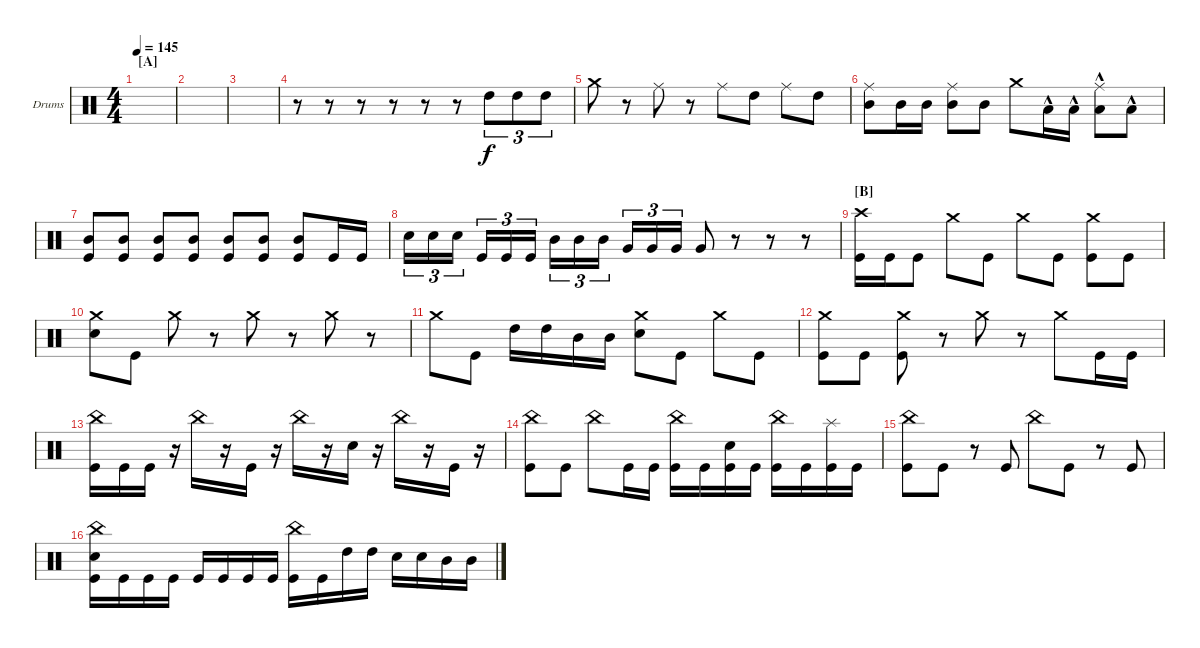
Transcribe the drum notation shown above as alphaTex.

\defaultSystemsLayout 4
\bracketExtendMode groupsimilarinstruments
\firstSystemTrackNameOrientation horizontal
\otherSystemsTrackNameOrientation horizontal
\track ("Drumkit" "Drums") {instrument percussion}
\staff {score}
\articulation defaults
\ts (4 4)
\section ("A" "")
\tempo 145
\clef neutral
\ks c
|
|
|
r.8 r.8 r.8 r.8 r.8 r.8 "High Tom (hit)".8{tu (3 2)} "High Tom (hit)".8{tu (3 2)} "High Tom (hit)".8{tu (3 2)} |
"Crash medium (hit)".8 r.8 "Ride (middle)".8 r.8 "Ride (middle)".8 "High Tom (hit)".8 "Ride (middle)".8 "High Tom (hit)".8 |
("Mid Tom (hit)" "Ride (middle)").8 "Mid Tom (hit)".16 "Mid Tom (hit)".16 ("Ride (middle)" "Mid Tom (hit)").8 "Mid Tom (hit)".8 "Crash medium (hit)".8 "Low Tom (hit)"{hac}.16 "Low Tom (hit)"{hac}.16 ("Low Tom (hit)"{hac} "Ride (middle)").8 "Low Tom (hit)"{hac}.8 |
("Kick (hit)" "Mid Tom (hit)").8 ("Kick (hit)" "Mid Tom (hit)").8 ("Kick (hit)" "Mid Tom (hit)").8 ("Kick (hit)" "Mid Tom (hit)").8 ("Kick (hit)" "Mid Tom (hit)").8 ("Kick (hit)" "Mid Tom (hit)").8 ("Kick (hit)" "Mid Tom (hit)").8 "Kick (hit)".16 "Kick (hit)".16 |
"Snare (hit) 2".16{tu (3 2)} "Snare (hit) 2".16{tu (3 2)} "Snare (hit) 2".16{tu (3 2)} "Kick (hit)".16{tu (3 2)} "Kick (hit)".16{tu (3 2)} "Kick (hit)".16{tu (3 2)} "Mid Tom (hit)".16{tu (3 2)} "Mid Tom (hit)".16{tu (3 2)} "Mid Tom (hit)".16{tu (3 2)} "Very Low Tom (hit)".16{tu (3 2)} "Very Low Tom (hit)".16{tu (3 2)} "Very Low Tom (hit)".16{tu (3 2)} "Very Low Tom (hit)".8 r.8 r.8 r.8 |
\section ("B" "")
("Kick (hit)" "Crash high (hit)").16 "Kick (hit)".16 "Kick (hit)".8 "Crash medium (hit)".8 "Kick (hit)".8 "Crash medium (hit)".8 "Kick (hit)".8 ("Kick (hit)" "Crash medium (hit)").8 "Kick (hit)".8 |
("Snare (hit) 2" "Crash medium (hit)").8 "Kick (hit)".8 "Crash medium (hit)".8 r.8 "Crash medium (hit)".8 r.8 "Crash medium (hit)".8 r.8 |
"Crash medium (hit)".8 "Kick (hit)".8 "High Tom (hit)".16 "High Tom (hit)".16 "Mid Tom (hit)".16 "Mid Tom (hit)".16 ("Snare (hit) 2" "Crash medium (hit)").8 "Kick (hit)".8 "Crash medium (hit)".8 "Kick (hit)".8 |
("Kick (hit)" "Crash medium (hit)").8 "Kick (hit)".8 ("Crash medium (hit)" "Kick (hit)").8 r.8 "Crash medium (hit)".8 r.8 "Crash medium (hit)".8 "Kick (hit)".16 "Kick (hit)".16 |
("Kick (hit)" "China (hit)").16 "Kick (hit)".16 "Kick (hit)".16 r.16 "China (hit)".16 r.16 "Kick (hit)".16 r.16 "China (hit)".16 r.16 "Snare (hit) 2".16 r.16 "China (hit)".16 r.16 "Kick (hit)".16 r.16 |
("China (hit)" "Kick (hit)").8 "Kick (hit)".8 "China (hit)".8 "Kick (hit)".16 "Kick (hit)".16 ("China (hit)" "Kick (hit)").16 "Kick (hit)".16 ("Snare (hit) 2" "Kick (hit)").16 "Kick (hit)".16 ("China (hit)" "Kick (hit)").16 "Kick (hit)".16 ("Kick (hit)" "Splash (hit)").16 "Kick (hit)".16 |
("Kick (hit)" "China (hit)").8 "Kick (hit)".8 r.8 "Kick (hit)".8 "China (hit)".8 "Kick (hit)".8 r.8 "Kick (hit)".8 |
("Kick (hit)" "Snare (hit) 2" "China (hit)").16 "Kick (hit)".16 "Kick (hit)".16 "Kick (hit)".16 "Kick (hit)".16 "Kick (hit)".16 "Kick (hit)".16 "Kick (hit)".16 ("Kick (hit)" "China (hit)").16 "Kick (hit)".16 "High Tom (hit)".16 "High Tom (hit)".16 "Snare (hit) 2".16 "Snare (hit) 2".16 "Mid Tom (hit)".16 "Mid Tom (hit)".16
